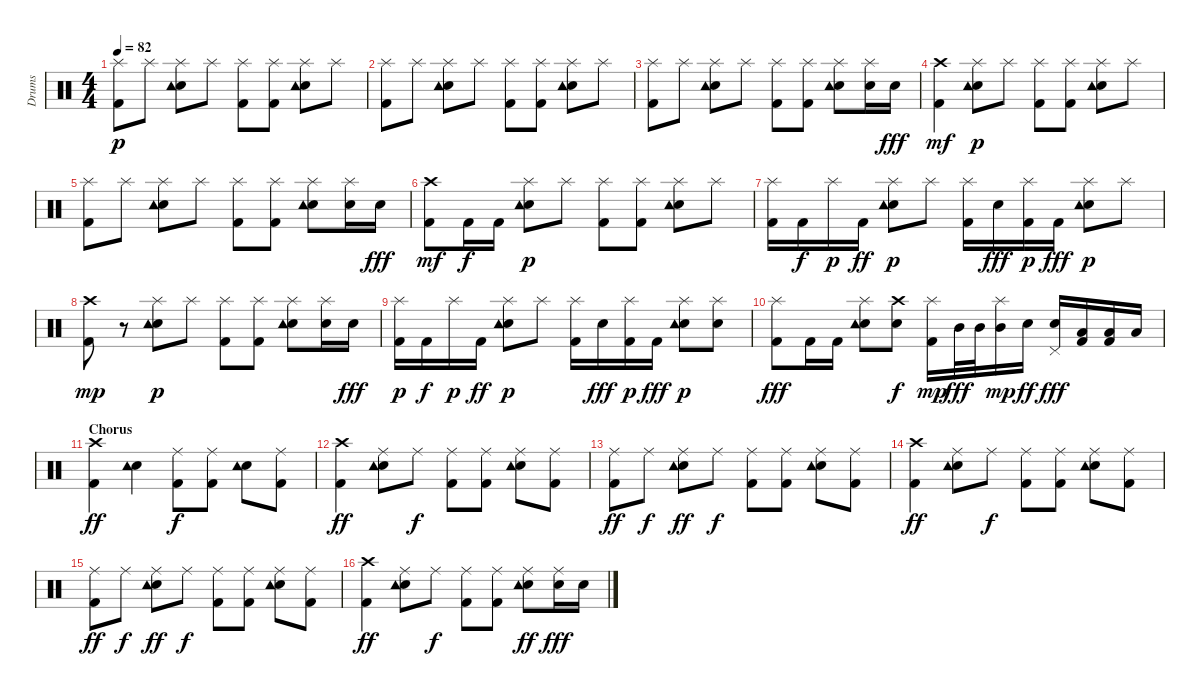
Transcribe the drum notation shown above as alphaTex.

\track ("Drums" "Drums") {instrument percussion}
\staff {score}
\articulation defaults
\ts (4 4)
\tempo 82
\clef neutral
\ks c
("Kick (hit) 2" "Splash (hit)").8{dy p} "Splash (hit)".8 ("Electric Snare (hit)" "Tambourine (hit)" "Splash (hit)").8 "Splash (hit)".8 ("Kick (hit) 2" "Splash (hit)").8 ("Kick (hit) 2" "Splash (hit)").8 ("Electric Snare (hit)" "Tambourine (hit)" "Splash (hit)").8 "Splash (hit)".8 |
("Kick (hit) 2" "Splash (hit)").8 "Splash (hit)".8 ("Electric Snare (hit)" "Tambourine (hit)" "Splash (hit)").8 "Splash (hit)".8 ("Kick (hit) 2" "Splash (hit)").8 ("Kick (hit) 2" "Splash (hit)").8 ("Electric Snare (hit)" "Tambourine (hit)" "Splash (hit)").8 "Splash (hit)".8 |
("Kick (hit) 2" "Splash (hit)").8 "Splash (hit)".8 ("Electric Snare (hit)" "Tambourine (hit)" "Splash (hit)").8 "Splash (hit)".8 ("Kick (hit) 2" "Splash (hit)").8 ("Kick (hit) 2" "Splash (hit)").8 ("Electric Snare (hit)" "Tambourine (hit)" "Splash (hit)").8 ("Electric Snare (hit)" "Splash (hit)").16 "Electric Snare (hit)".16{dy fff} |
("Kick (hit) 2" "Crash high (hit)").4{dy mf} ("Electric Snare (hit)" "Tambourine (hit)" "Splash (hit)").8{dy p} "Splash (hit)".8 ("Kick (hit) 2" "Splash (hit)").8 ("Kick (hit) 2" "Splash (hit)").8 ("Electric Snare (hit)" "Tambourine (hit)" "Splash (hit)").8 "Splash (hit)".8 |
("Kick (hit) 2" "Splash (hit)").8 "Splash (hit)".8 ("Electric Snare (hit)" "Tambourine (hit)" "Splash (hit)").8 "Splash (hit)".8 ("Kick (hit) 2" "Splash (hit)").8 ("Kick (hit) 2" "Splash (hit)").8 ("Electric Snare (hit)" "Tambourine (hit)" "Splash (hit)").8 ("Electric Snare (hit)" "Splash (hit)").16 "Electric Snare (hit)".16{dy fff} |
("Kick (hit) 2" "Crash high (hit)").8{dy mf} "Kick (hit) 2".16{dy f} "Kick (hit) 2".16 ("Electric Snare (hit)" "Tambourine (hit)" "Splash (hit)").8{dy p} "Splash (hit)".8 ("Kick (hit) 2" "Splash (hit)").8 ("Kick (hit) 2" "Splash (hit)").8 ("Electric Snare (hit)" "Tambourine (hit)" "Splash (hit)").8 "Splash (hit)".8 |
("Kick (hit) 2" "Splash (hit)").16 "Kick (hit) 2".16{dy f} "Splash (hit)".16{dy p} "Kick (hit) 2".16{dy ff} ("Electric Snare (hit)" "Tambourine (hit)" "Splash (hit)").8{dy p} "Splash (hit)".8 ("Kick (hit) 2" "Splash (hit)").16 "Electric Snare (hit)".16{dy fff} ("Kick (hit) 2" "Splash (hit)").16{dy p} "Kick (hit) 2".16{dy fff} ("Electric Snare (hit)" "Tambourine (hit)" "Splash (hit)").8{dy p} "Splash (hit)".8 |
("Kick (hit) 2" "Crash high (hit)").8{dy mp} r.8 ("Electric Snare (hit)" "Tambourine (hit)" "Splash (hit)").8{dy p} "Splash (hit)".8 ("Kick (hit) 2" "Splash (hit)").8 ("Kick (hit) 2" "Splash (hit)").8 ("Electric Snare (hit)" "Tambourine (hit)" "Splash (hit)").8 ("Electric Snare (hit)" "Splash (hit)").16 "Electric Snare (hit)".16{dy fff} |
("Kick (hit) 2" "Splash (hit)").16{dy p} "Kick (hit) 2".16{dy f} "Splash (hit)".16{dy p} "Kick (hit) 2".16{dy ff} ("Electric Snare (hit)" "Tambourine (hit)" "Splash (hit)").8{dy p} "Splash (hit)".8 ("Kick (hit) 2" "Splash (hit)").16 "Electric Snare (hit)".16{dy fff} ("Kick (hit) 2" "Splash (hit)").16{dy p} "Kick (hit) 2".16{dy fff} ("Electric Snare (hit)" "Tambourine (hit)" "Splash (hit)").8{dy p} ("Electric Snare (hit)" "Splash (hit)").8 |
("Kick (hit) 2" "Splash (hit)").8{dy fff} "Kick (hit) 2".16 "Kick (hit) 2".16 ("Electric Snare (hit)" "Tambourine (hit)" "Splash (hit)").8 ("Electric Snare (hit)" "Crash high (hit)").8{dy f} ("Kick (hit) 2" "Splash (hit)").16{dy mp} "Mid Tom (hit)".32{dy fff} "Mid Tom (hit)".32 ("Mid Tom (hit)" "Splash (hit)").16{dy mp} "Electric Snare (hit)".16{dy ff} ("Electric Snare (hit)" "Pedal Hi-Hat (hit)").16{dy fff} ("Low Tom (hit)" "Kick (hit) 2").16 ("Low Tom (hit)" "Kick (hit) 2").16 "Low Tom (hit)".16 |
\section ("" "Chorus")
("Kick (hit) 2" "Crash high (hit)").4{dy ff} ("Electric Snare (hit)" "Tambourine (hit)").4 ("Kick (hit) 2" "Ride (middle)").8{dy f} ("Kick (hit) 2" "Ride (middle)").8 ("Electric Snare (hit)" "Tambourine (hit)").8 ("Kick (hit) 2" "Ride (middle)").8 |
("Kick (hit) 2" "Crash high (hit)").4{dy ff} ("Electric Snare (hit)" "Tambourine (hit)" "Ride (middle)").8 "Ride (middle)".8{dy f} ("Kick (hit) 2" "Ride (middle)").8 ("Kick (hit) 2" "Ride (middle)").8 ("Electric Snare (hit)" "Tambourine (hit)" "Ride (middle)").8 ("Kick (hit) 2" "Ride (middle)").8 |
("Kick (hit) 2" "Ride (middle)").8{dy ff} "Ride (middle)".8{dy f} ("Electric Snare (hit)" "Tambourine (hit)" "Ride (middle)").8{dy ff} "Ride (middle)".8{dy f} ("Kick (hit) 2" "Ride (middle)").8 ("Kick (hit) 2" "Ride (middle)").8 ("Electric Snare (hit)" "Tambourine (hit)" "Ride (middle)").8 ("Kick (hit) 2" "Ride (middle)").8 |
("Kick (hit) 2" "Crash high (hit)").4{dy ff} ("Electric Snare (hit)" "Tambourine (hit)" "Ride (middle)").8 "Ride (middle)".8{dy f} ("Kick (hit) 2" "Ride (middle)").8 ("Kick (hit) 2" "Ride (middle)").8 ("Electric Snare (hit)" "Tambourine (hit)" "Ride (middle)").8 ("Kick (hit) 2" "Ride (middle)").8 |
("Kick (hit) 2" "Ride (middle)").8{dy ff} "Ride (middle)".8{dy f} ("Electric Snare (hit)" "Tambourine (hit)" "Ride (middle)").8{dy ff} "Ride (middle)".8{dy f} ("Kick (hit) 2" "Ride (middle)").8 ("Kick (hit) 2" "Ride (middle)").8 ("Electric Snare (hit)" "Tambourine (hit)" "Ride (middle)").8 ("Kick (hit) 2" "Ride (middle)").8 |
("Kick (hit) 2" "Crash high (hit)").4{dy ff} ("Electric Snare (hit)" "Tambourine (hit)" "Ride (middle)").8 "Ride (middle)".8{dy f} ("Kick (hit) 2" "Ride (middle)").8 ("Kick (hit) 2" "Ride (middle)").8 ("Electric Snare (hit)" "Tambourine (hit)" "Ride (middle)").8{dy ff} ("Electric Snare (hit)" "Ride (middle)").16{dy fff} "Electric Snare (hit)".16
